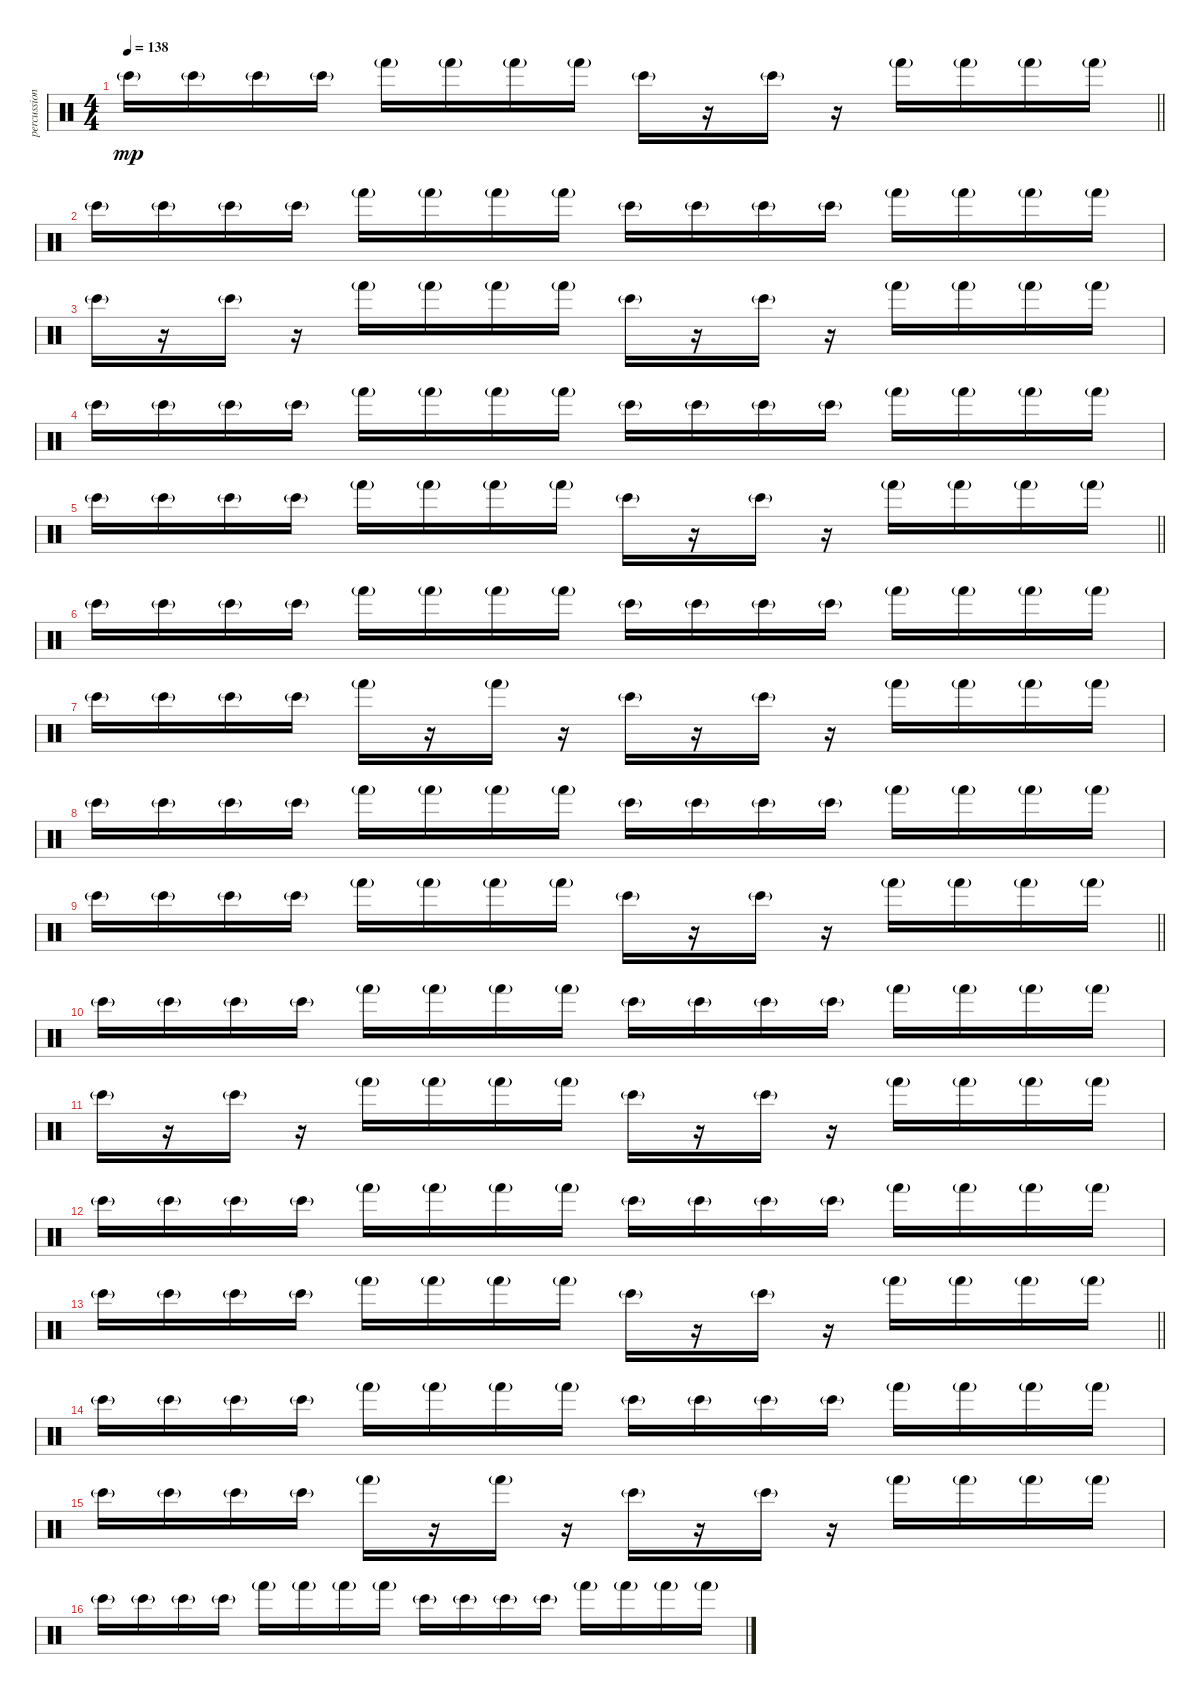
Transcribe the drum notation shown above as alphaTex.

\track ("percussion" "percussion") {instrument percussion}
\staff {score}
\articulation defaults
\ts (4 4)
\tempo 138
\clef neutral
\barLineRight lightlight
\ks c "Bongo High (hit)"{g}.16{dy mp} "Bongo High (hit)"{g}.16 "Bongo High (hit)"{g}.16 "Bongo High (hit)"{g}.16 "Hand (hit)"{g}.16 "Hand (hit)"{g}.16 "Hand (hit)"{g}.16 "Hand (hit)"{g}.16 "Bongo High (hit)"{g}.16
r.16 "Bongo High (hit)"{g}.16 r.16 "Hand (hit)"{g}.16 "Hand (hit)"{g}.16 "Hand (hit)"{g}.16 "Hand (hit)"{g}.16 |
"Bongo High (hit)"{g}.16 "Bongo High (hit)"{g}.16 "Bongo High (hit)"{g}.16 "Bongo High (hit)"{g}.16 "Hand (hit)"{g}.16 "Hand (hit)"{g}.16 "Hand (hit)"{g}.16 "Hand (hit)"{g}.16 "Bongo High (hit)"{g}.16 "Bongo High (hit)"{g}.16 "Bongo High (hit)"{g}.16 "Bongo High (hit)"{g}.16 "Hand (hit)"{g}.16 "Hand (hit)"{g}.16 "Hand (hit)"{g}.16 "Hand (hit)"{g}.16 |
"Bongo High (hit)"{g}.16 r.16 "Bongo High (hit)"{g}.16 r.16 "Hand (hit)"{g}.16 "Hand (hit)"{g}.16 "Hand (hit)"{g}.16 "Hand (hit)"{g}.16 "Bongo High (hit)"{g}.16 r.16 "Bongo High (hit)"{g}.16 r.16 "Hand (hit)"{g}.16 "Hand (hit)"{g}.16 "Hand (hit)"{g}.16 "Hand (hit)"{g}.16 |
"Bongo High (hit)"{g}.16 "Bongo High (hit)"{g}.16 "Bongo High (hit)"{g}.16 "Bongo High (hit)"{g}.16 "Hand (hit)"{g}.16 "Hand (hit)"{g}.16 "Hand (hit)"{g}.16 "Hand (hit)"{g}.16 "Bongo High (hit)"{g}.16 "Bongo High (hit)"{g}.16 "Bongo High (hit)"{g}.16 "Bongo High (hit)"{g}.16 "Hand (hit)"{g}.16 "Hand (hit)"{g}.16 "Hand (hit)"{g}.16 "Hand (hit)"{g}.16 |
\barLineRight lightlight "Bongo High (hit)"{g}.16 "Bongo High (hit)"{g}.16 "Bongo High (hit)"{g}.16 "Bongo High (hit)"{g}.16 "Hand (hit)"{g}.16 "Hand (hit)"{g}.16 "Hand (hit)"{g}.16 "Hand (hit)"{g}.16 "Bongo High (hit)"{g}.16
r.16 "Bongo High (hit)"{g}.16 r.16 "Hand (hit)"{g}.16 "Hand (hit)"{g}.16 "Hand (hit)"{g}.16 "Hand (hit)"{g}.16 |
"Bongo High (hit)"{g}.16 "Bongo High (hit)"{g}.16 "Bongo High (hit)"{g}.16 "Bongo High (hit)"{g}.16 "Hand (hit)"{g}.16 "Hand (hit)"{g}.16 "Hand (hit)"{g}.16 "Hand (hit)"{g}.16 "Bongo High (hit)"{g}.16 "Bongo High (hit)"{g}.16 "Bongo High (hit)"{g}.16 "Bongo High (hit)"{g}.16 "Hand (hit)"{g}.16 "Hand (hit)"{g}.16 "Hand (hit)"{g}.16 "Hand (hit)"{g}.16 |
"Bongo High (hit)"{g}.16 "Bongo High (hit)"{g}.16 "Bongo High (hit)"{g}.16 "Bongo High (hit)"{g}.16 "Hand (hit)"{g}.16 r.16 "Hand (hit)"{g}.16 r.16 "Bongo High (hit)"{g}.16 r.16 "Bongo High (hit)"{g}.16 r.16 "Hand (hit)"{g}.16 "Hand (hit)"{g}.16 "Hand (hit)"{g}.16 "Hand (hit)"{g}.16 |
"Bongo High (hit)"{g}.16 "Bongo High (hit)"{g}.16 "Bongo High (hit)"{g}.16 "Bongo High (hit)"{g}.16 "Hand (hit)"{g}.16 "Hand (hit)"{g}.16 "Hand (hit)"{g}.16 "Hand (hit)"{g}.16 "Bongo High (hit)"{g}.16 "Bongo High (hit)"{g}.16 "Bongo High (hit)"{g}.16 "Bongo High (hit)"{g}.16 "Hand (hit)"{g}.16 "Hand (hit)"{g}.16 "Hand (hit)"{g}.16 "Hand (hit)"{g}.16 |
\barLineRight lightlight "Bongo High (hit)"{g}.16 "Bongo High (hit)"{g}.16 "Bongo High (hit)"{g}.16 "Bongo High (hit)"{g}.16 "Hand (hit)"{g}.16 "Hand (hit)"{g}.16 "Hand (hit)"{g}.16 "Hand (hit)"{g}.16 "Bongo High (hit)"{g}.16
r.16 "Bongo High (hit)"{g}.16 r.16 "Hand (hit)"{g}.16 "Hand (hit)"{g}.16 "Hand (hit)"{g}.16 "Hand (hit)"{g}.16 |
"Bongo High (hit)"{g}.16 "Bongo High (hit)"{g}.16 "Bongo High (hit)"{g}.16 "Bongo High (hit)"{g}.16 "Hand (hit)"{g}.16 "Hand (hit)"{g}.16 "Hand (hit)"{g}.16 "Hand (hit)"{g}.16 "Bongo High (hit)"{g}.16 "Bongo High (hit)"{g}.16 "Bongo High (hit)"{g}.16 "Bongo High (hit)"{g}.16 "Hand (hit)"{g}.16 "Hand (hit)"{g}.16 "Hand (hit)"{g}.16 "Hand (hit)"{g}.16 |
"Bongo High (hit)"{g}.16 r.16 "Bongo High (hit)"{g}.16 r.16 "Hand (hit)"{g}.16 "Hand (hit)"{g}.16 "Hand (hit)"{g}.16 "Hand (hit)"{g}.16 "Bongo High (hit)"{g}.16 r.16 "Bongo High (hit)"{g}.16 r.16 "Hand (hit)"{g}.16 "Hand (hit)"{g}.16 "Hand (hit)"{g}.16 "Hand (hit)"{g}.16 |
"Bongo High (hit)"{g}.16 "Bongo High (hit)"{g}.16 "Bongo High (hit)"{g}.16 "Bongo High (hit)"{g}.16 "Hand (hit)"{g}.16 "Hand (hit)"{g}.16 "Hand (hit)"{g}.16 "Hand (hit)"{g}.16 "Bongo High (hit)"{g}.16 "Bongo High (hit)"{g}.16 "Bongo High (hit)"{g}.16 "Bongo High (hit)"{g}.16 "Hand (hit)"{g}.16 "Hand (hit)"{g}.16 "Hand (hit)"{g}.16 "Hand (hit)"{g}.16 |
\barLineRight lightlight "Bongo High (hit)"{g}.16 "Bongo High (hit)"{g}.16 "Bongo High (hit)"{g}.16 "Bongo High (hit)"{g}.16 "Hand (hit)"{g}.16 "Hand (hit)"{g}.16 "Hand (hit)"{g}.16 "Hand (hit)"{g}.16 "Bongo High (hit)"{g}.16
r.16 "Bongo High (hit)"{g}.16 r.16 "Hand (hit)"{g}.16 "Hand (hit)"{g}.16 "Hand (hit)"{g}.16 "Hand (hit)"{g}.16 |
"Bongo High (hit)"{g}.16 "Bongo High (hit)"{g}.16 "Bongo High (hit)"{g}.16 "Bongo High (hit)"{g}.16 "Hand (hit)"{g}.16 "Hand (hit)"{g}.16 "Hand (hit)"{g}.16 "Hand (hit)"{g}.16 "Bongo High (hit)"{g}.16 "Bongo High (hit)"{g}.16 "Bongo High (hit)"{g}.16 "Bongo High (hit)"{g}.16 "Hand (hit)"{g}.16 "Hand (hit)"{g}.16 "Hand (hit)"{g}.16 "Hand (hit)"{g}.16 |
"Bongo High (hit)"{g}.16 "Bongo High (hit)"{g}.16 "Bongo High (hit)"{g}.16 "Bongo High (hit)"{g}.16 "Hand (hit)"{g}.16 r.16 "Hand (hit)"{g}.16 r.16 "Bongo High (hit)"{g}.16 r.16 "Bongo High (hit)"{g}.16 r.16 "Hand (hit)"{g}.16 "Hand (hit)"{g}.16 "Hand (hit)"{g}.16 "Hand (hit)"{g}.16 |
"Bongo High (hit)"{g}.16 "Bongo High (hit)"{g}.16 "Bongo High (hit)"{g}.16 "Bongo High (hit)"{g}.16 "Hand (hit)"{g}.16 "Hand (hit)"{g}.16 "Hand (hit)"{g}.16 "Hand (hit)"{g}.16 "Bongo High (hit)"{g}.16 "Bongo High (hit)"{g}.16 "Bongo High (hit)"{g}.16 "Bongo High (hit)"{g}.16 "Hand (hit)"{g}.16 "Hand (hit)"{g}.16 "Hand (hit)"{g}.16 "Hand (hit)"{g}.16
